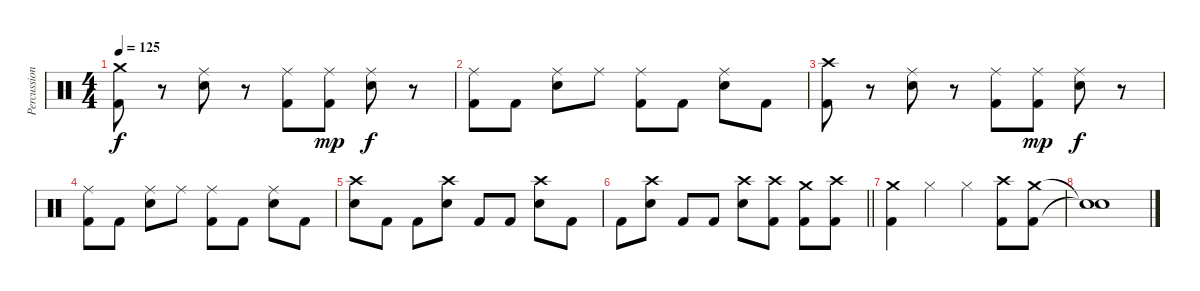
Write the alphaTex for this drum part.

\track ("Percussion" "Percussion") {instrument percussion}
\staff {score}
\articulation defaults
\ts (4 4)
\tempo 125
\clef neutral
\ks c
("Crash medium (hit)" "Kick (hit) 2").8{dy f} r.8 ("Ride (middle)" "Snare (hit) 2").8 r.8 ("Ride (middle)" "Kick (hit) 2").8 ("Ride (middle)" "Kick (hit) 2").8{dy mp} ("Ride (middle)" "Snare (hit) 2").8{dy f} r.8 |
("Ride (middle)" "Kick (hit) 2").8 "Kick (hit) 2".8 ("Ride (middle)" "Snare (hit) 2").8 "Ride (middle)".8 ("Ride (middle)" "Kick (hit) 2").8 "Kick (hit) 2".8 ("Ride (middle)" "Snare (hit) 2").8 "Kick (hit) 2".8 |
("Crash high (hit)" "Kick (hit) 2").8 r.8 ("Ride (middle)" "Snare (hit) 2").8 r.8 ("Ride (middle)" "Kick (hit) 2").8 ("Ride (middle)" "Kick (hit) 2").8{dy mp} ("Ride (middle)" "Snare (hit) 2").8{dy f} r.8 |
("Ride (middle)" "Kick (hit) 2").8 "Kick (hit) 2".8 ("Ride (middle)" "Snare (hit) 2").8 "Ride (middle)".8 ("Ride (middle)" "Kick (hit) 2").8 "Kick (hit) 2".8 ("Ride (middle)" "Snare (hit) 2").8 "Kick (hit) 2".8 |
("Crash high (hit)" "Snare (hit) 2").8 "Kick (hit) 2".8 "Kick (hit) 2".8 ("Crash high (hit)" "Snare (hit) 2").8 "Kick (hit) 2".8 "Kick (hit) 2".8 ("Crash high (hit)" "Snare (hit) 2").8 "Kick (hit) 2".8 |
\barLineRight lightlight "Kick (hit) 2".8
("Crash high (hit)" "Snare (hit) 2").8 "Kick (hit) 2".8 "Kick (hit) 2".8 ("Crash high (hit)" "Snare (hit) 2").8 ("Crash high (hit)" "Kick (hit) 2").8 ("Crash medium (hit)" "Kick (hit) 2").8 ("Crash high (hit)" "Kick (hit) 2").8 |
("Crash medium (hit)" "Kick (hit) 2").4 "Hi-Hat (closed)".4 "Hi-Hat (closed)".4 ("Crash high (hit)" "Kick (hit) 2").8 ("Crash medium (hit)" "Kick (hit) 2").8 |
("Snare (hit)"{t} "Snare (hit)"{t}).1
